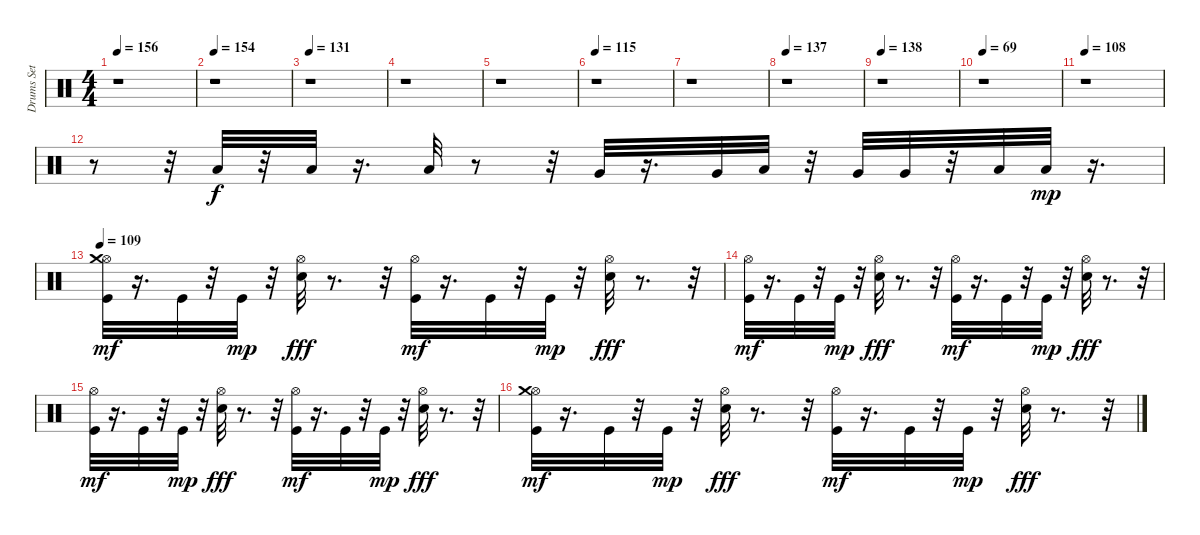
\track ("Drums Set" "Drums Set") {instrument percussion}
\staff {score}
\articulation defaults
\ts (4 4)
\tempo 156
\clef neutral
\ks c
r.1{dy f} |
\tempo 154
r.1 |
\tempo 131
r.1 |
r.1 |
r.1 |
\tempo 115
r.1 |
r.1 |
\tempo 137
r.1 |
\tempo 138
r.1 |
\tempo 69
r.1 |
\tempo 108
r.1 |
r.8 r.32 "Low Tom (hit)".32 r.32 "Low Tom (hit)".32 r.16{d} "Low Tom (hit)".32 r.8 r.32 "Very Low Tom (hit)".32 r.16{d} "Very Low Tom (hit)".32 "Low Tom (hit)".32 r.32 "Very Low Tom (hit)".32 "Very Low Tom (hit)".32 r.32 "Low Floor Tom (hit)".32 "Low Floor Tom (hit)".32{dy mp} r.16{d} |
\tempo 109
("Hi-Hat (open)" "Crash medium (hit)" "Kick (hit)").32{dy mf} r.16{d} "Kick (hit)".32 r.32 "Kick (hit)".32{dy mp} r.32 ("Hi-Hat (open)" "Snare (hit) 2").32{dy fff} r.8{d} r.32 ("Hi-Hat (open)" "Kick (hit)").32{dy mf} r.16{d} "Kick (hit)".32 r.32 "Kick (hit)".32{dy mp} r.32 ("Hi-Hat (open)" "Snare (hit) 2").32{dy fff} r.8{d} r.32 |
("Hi-Hat (open)" "Kick (hit)").32{dy mf} r.16{d} "Kick (hit)".32 r.32 "Kick (hit)".32{dy mp} r.32 ("Hi-Hat (open)" "Snare (hit) 2").32{dy fff} r.8{d} r.32 ("Hi-Hat (open)" "Kick (hit)").32{dy mf} r.16{d} "Kick (hit)".32 r.32 "Kick (hit)".32{dy mp} r.32 ("Hi-Hat (open)" "Snare (hit) 2").32{dy fff} r.8{d} r.32 |
("Hi-Hat (open)" "Kick (hit)").32{dy mf} r.16{d} "Kick (hit)".32 r.32 "Kick (hit)".32{dy mp} r.32 ("Hi-Hat (open)" "Snare (hit) 2").32{dy fff} r.8{d} r.32 ("Hi-Hat (open)" "Kick (hit)").32{dy mf} r.16{d} "Kick (hit)".32 r.32 "Kick (hit)".32{dy mp} r.32 ("Hi-Hat (open)" "Snare (hit) 2").32{dy fff} r.8{d} r.32 |
("Hi-Hat (open)" "Kick (hit)" "Crash medium (hit)").32{dy mf} r.16{d} "Kick (hit)".32 r.32 "Kick (hit)".32{dy mp} r.32 ("Hi-Hat (open)" "Snare (hit) 2").32{dy fff} r.8{d} r.32 ("Hi-Hat (open)" "Kick (hit)").32{dy mf} r.16{d} "Kick (hit)".32 r.32 "Kick (hit)".32{dy mp} r.32 ("Hi-Hat (open)" "Snare (hit) 2").32{dy fff} r.8{d} r.32
